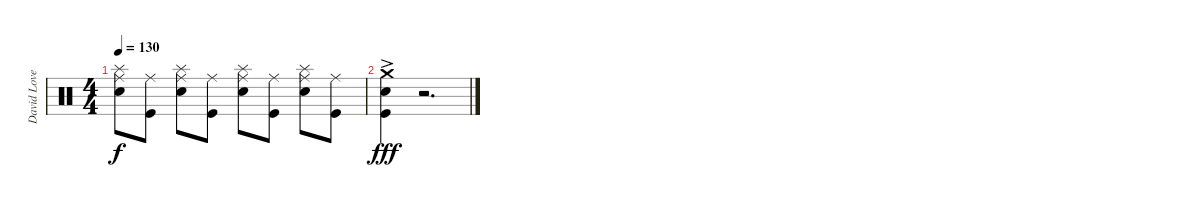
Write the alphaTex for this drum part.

\track ("David Lovering" "David Love") {instrument percussion}
\staff {score}
\articulation defaults
\ts (4 4)
\tempo 130
\clef neutral
\ks c
("Ride (middle)" "Splash (hit)" "Snare (hit) 2").8{dy f} ("Ride (middle)" "Kick (hit)").8 ("Ride (middle)" "Splash (hit)" "Snare (hit) 2").8 ("Ride (middle)" "Kick (hit)").8 ("Ride (middle)" "Splash (hit)" "Snare (hit) 2").8 ("Ride (middle)" "Kick (hit)").8 ("Ride (middle)" "Splash (hit)" "Snare (hit) 2").8 ("Ride (middle)" "Kick (hit)").8 |
("Crash medium (hit)" "Snare (hit) 2"{ac} "Kick (hit)").4{dy fff} r.2{d}
